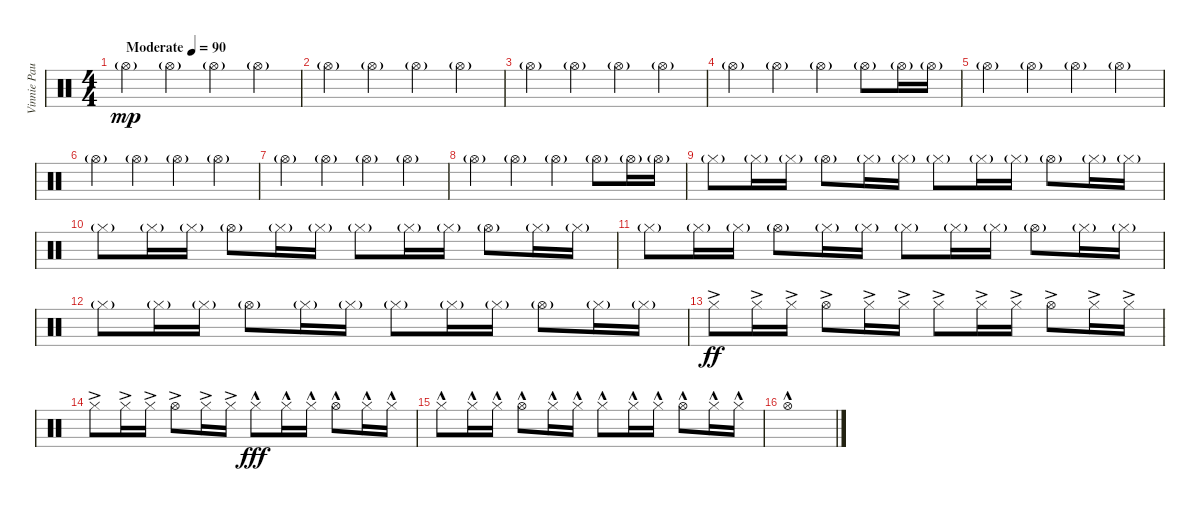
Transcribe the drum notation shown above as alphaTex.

\track ("Vinnie Paul" "Vinnie Pau") {instrument percussion}
\staff {score}
\articulation defaults
\ts (4 4)
\tempo (90 "Moderate")
\clef neutral
\ks c "Hi-Hat (open)"{g}.4{dy mp} "Hi-Hat (open)"{g}.4 "Hi-Hat (open)"{g}.4 "Hi-Hat (open)"{g}.4
|
"Hi-Hat (open)"{g}.4 "Hi-Hat (open)"{g}.4 "Hi-Hat (open)"{g}.4 "Hi-Hat (open)"{g}.4 |
"Hi-Hat (open)"{g}.4 "Hi-Hat (open)"{g}.4 "Hi-Hat (open)"{g}.4 "Hi-Hat (open)"{g}.4 |
"Hi-Hat (open)"{g}.4 "Hi-Hat (open)"{g}.4 "Hi-Hat (open)"{g}.4 "Hi-Hat (open)"{g}.8 "Hi-Hat (open)"{g}.16 "Hi-Hat (open)"{g}.16 |
"Hi-Hat (open)"{g}.4 "Hi-Hat (open)"{g}.4 "Hi-Hat (open)"{g}.4 "Hi-Hat (open)"{g}.4 |
"Hi-Hat (open)"{g}.4 "Hi-Hat (open)"{g}.4 "Hi-Hat (open)"{g}.4 "Hi-Hat (open)"{g}.4 |
"Hi-Hat (open)"{g}.4 "Hi-Hat (open)"{g}.4 "Hi-Hat (open)"{g}.4 "Hi-Hat (open)"{g}.4 |
"Hi-Hat (open)"{g}.4 "Hi-Hat (open)"{g}.4 "Hi-Hat (open)"{g}.4 "Hi-Hat (open)"{g}.8 "Hi-Hat (open)"{g}.16 "Hi-Hat (open)"{g}.16 |
"Hi-Hat (closed)"{g}.8 "Hi-Hat (closed)"{g}.16 "Hi-Hat (closed)"{g}.16 "Hi-Hat (open)"{g}.8 "Hi-Hat (closed)"{g}.16 "Hi-Hat (closed)"{g}.16 "Hi-Hat (closed)"{g}.8 "Hi-Hat (closed)"{g}.16 "Hi-Hat (closed)"{g}.16 "Hi-Hat (open)"{g}.8 "Hi-Hat (closed)"{g}.16 "Hi-Hat (closed)"{g}.16 |
"Hi-Hat (closed)"{g}.8 "Hi-Hat (closed)"{g}.16 "Hi-Hat (closed)"{g}.16 "Hi-Hat (open)"{g}.8 "Hi-Hat (closed)"{g}.16 "Hi-Hat (closed)"{g}.16 "Hi-Hat (closed)"{g}.8 "Hi-Hat (closed)"{g}.16 "Hi-Hat (closed)"{g}.16 "Hi-Hat (open)"{g}.8 "Hi-Hat (closed)"{g}.16 "Hi-Hat (closed)"{g}.16 |
"Hi-Hat (closed)"{g}.8 "Hi-Hat (closed)"{g}.16 "Hi-Hat (closed)"{g}.16 "Hi-Hat (open)"{g}.8 "Hi-Hat (closed)"{g}.16 "Hi-Hat (closed)"{g}.16 "Hi-Hat (closed)"{g}.8 "Hi-Hat (closed)"{g}.16 "Hi-Hat (closed)"{g}.16 "Hi-Hat (open)"{g}.8 "Hi-Hat (closed)"{g}.16 "Hi-Hat (closed)"{g}.16 |
"Hi-Hat (closed)"{g}.8 "Hi-Hat (closed)"{g}.16 "Hi-Hat (closed)"{g}.16 "Hi-Hat (open)"{g}.8 "Hi-Hat (closed)"{g}.16 "Hi-Hat (closed)"{g}.16 "Hi-Hat (closed)"{g}.8 "Hi-Hat (closed)"{g}.16 "Hi-Hat (closed)"{g}.16 "Hi-Hat (open)"{g}.8 "Hi-Hat (closed)"{g}.16 "Hi-Hat (closed)"{g}.16 |
"Hi-Hat (closed)"{ac}.8{dy ff volume 12} "Hi-Hat (closed)"{ac}.16 "Hi-Hat (closed)"{ac}.16 "Hi-Hat (open)"{ac}.8 "Hi-Hat (closed)"{ac}.16 "Hi-Hat (closed)"{ac}.16 "Hi-Hat (closed)"{ac}.8 "Hi-Hat (closed)"{ac}.16 "Hi-Hat (closed)"{ac}.16 "Hi-Hat (open)"{ac}.8 "Hi-Hat (closed)"{ac}.16 "Hi-Hat (closed)"{ac}.16 |
"Hi-Hat (closed)"{ac}.8 "Hi-Hat (closed)"{ac}.16 "Hi-Hat (closed)"{ac}.16 "Hi-Hat (open)"{ac}.8 "Hi-Hat (closed)"{ac}.16 "Hi-Hat (closed)"{ac}.16 "Hi-Hat (closed)"{hac}.8{dy fff} "Hi-Hat (closed)"{hac}.16 "Hi-Hat (closed)"{hac}.16 "Hi-Hat (open)"{hac}.8 "Hi-Hat (closed)"{hac}.16 "Hi-Hat (closed)"{hac}.16 |
"Hi-Hat (closed)"{hac}.8 "Hi-Hat (closed)"{hac}.16 "Hi-Hat (closed)"{hac}.16 "Hi-Hat (open)"{hac}.8 "Hi-Hat (closed)"{hac}.16 "Hi-Hat (closed)"{hac}.16 "Hi-Hat (closed)"{hac}.8 "Hi-Hat (closed)"{hac}.16 "Hi-Hat (closed)"{hac}.16 "Hi-Hat (open)"{hac}.8 "Hi-Hat (closed)"{hac}.16 "Hi-Hat (closed)"{hac}.16 |
"Hi-Hat (open)"{hac}.1
